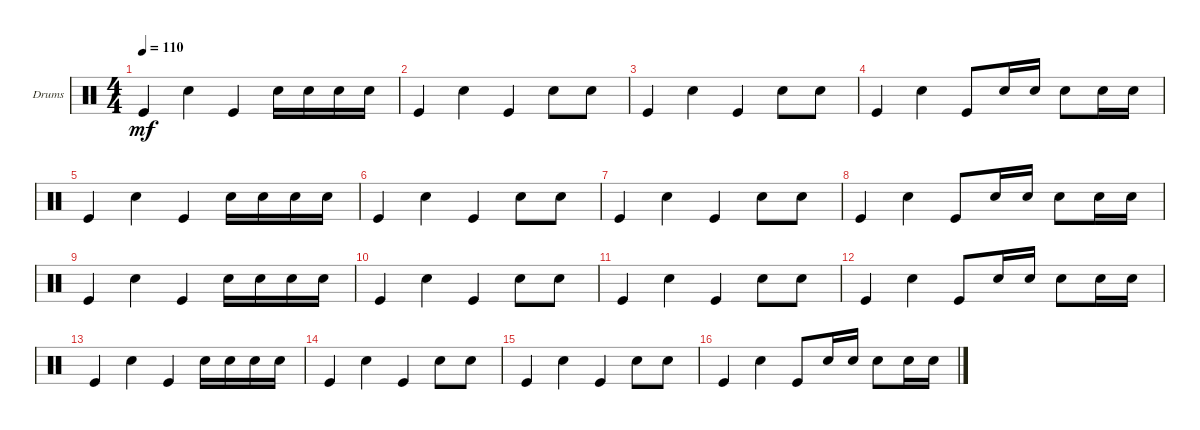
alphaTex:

\defaultSystemsLayout 4
\bracketExtendMode groupsimilarinstruments
\firstSystemTrackNameOrientation horizontal
\otherSystemsTrackNameOrientation horizontal
\track ("Drumkit" "Drums") {instrument percussion}
\staff {score}
\articulation defaults
\ts (4 4)
\tempo 110
\clef neutral
\ks c "Kick (hit)".4{dy mf} "Snare (hit) 2".4 "Kick (hit)".4 "Snare (hit) 2".16 "Snare (hit) 2".16 "Snare (hit) 2".16 "Snare (hit) 2".16
|
"Kick (hit)".4 "Snare (hit) 2".4 "Kick (hit)".4 "Snare (hit) 2".8 "Snare (hit) 2".8 |
"Kick (hit)".4 "Snare (hit) 2".4 "Kick (hit)".4 "Snare (hit) 2".8 "Snare (hit) 2".8 |
"Kick (hit)".4 "Snare (hit) 2".4 "Kick (hit)".8 "Snare (hit) 2".16 "Snare (hit) 2".16 "Snare (hit) 2".8 "Snare (hit) 2".16 "Snare (hit) 2".16 |
"Kick (hit)".4 "Snare (hit) 2".4 "Kick (hit)".4 "Snare (hit) 2".16 "Snare (hit) 2".16 "Snare (hit) 2".16 "Snare (hit) 2".16 |
"Kick (hit)".4 "Snare (hit) 2".4 "Kick (hit)".4 "Snare (hit) 2".8 "Snare (hit) 2".8 |
"Kick (hit)".4 "Snare (hit) 2".4 "Kick (hit)".4 "Snare (hit) 2".8 "Snare (hit) 2".8 |
"Kick (hit)".4 "Snare (hit) 2".4 "Kick (hit)".8 "Snare (hit) 2".16 "Snare (hit) 2".16 "Snare (hit) 2".8 "Snare (hit) 2".16 "Snare (hit) 2".16 |
"Kick (hit)".4 "Snare (hit) 2".4 "Kick (hit)".4 "Snare (hit) 2".16 "Snare (hit) 2".16 "Snare (hit) 2".16 "Snare (hit) 2".16 |
"Kick (hit)".4 "Snare (hit) 2".4 "Kick (hit)".4 "Snare (hit) 2".8 "Snare (hit) 2".8 |
"Kick (hit)".4 "Snare (hit) 2".4 "Kick (hit)".4 "Snare (hit) 2".8 "Snare (hit) 2".8 |
"Kick (hit)".4 "Snare (hit) 2".4 "Kick (hit)".8 "Snare (hit) 2".16 "Snare (hit) 2".16 "Snare (hit) 2".8 "Snare (hit) 2".16 "Snare (hit) 2".16 |
"Kick (hit)".4 "Snare (hit) 2".4 "Kick (hit)".4 "Snare (hit) 2".16 "Snare (hit) 2".16 "Snare (hit) 2".16 "Snare (hit) 2".16 |
"Kick (hit)".4 "Snare (hit) 2".4 "Kick (hit)".4 "Snare (hit) 2".8 "Snare (hit) 2".8 |
"Kick (hit)".4 "Snare (hit) 2".4 "Kick (hit)".4 "Snare (hit) 2".8 "Snare (hit) 2".8 |
"Kick (hit)".4 "Snare (hit) 2".4 "Kick (hit)".8 "Snare (hit) 2".16 "Snare (hit) 2".16 "Snare (hit) 2".8 "Snare (hit) 2".16 "Snare (hit) 2".16
